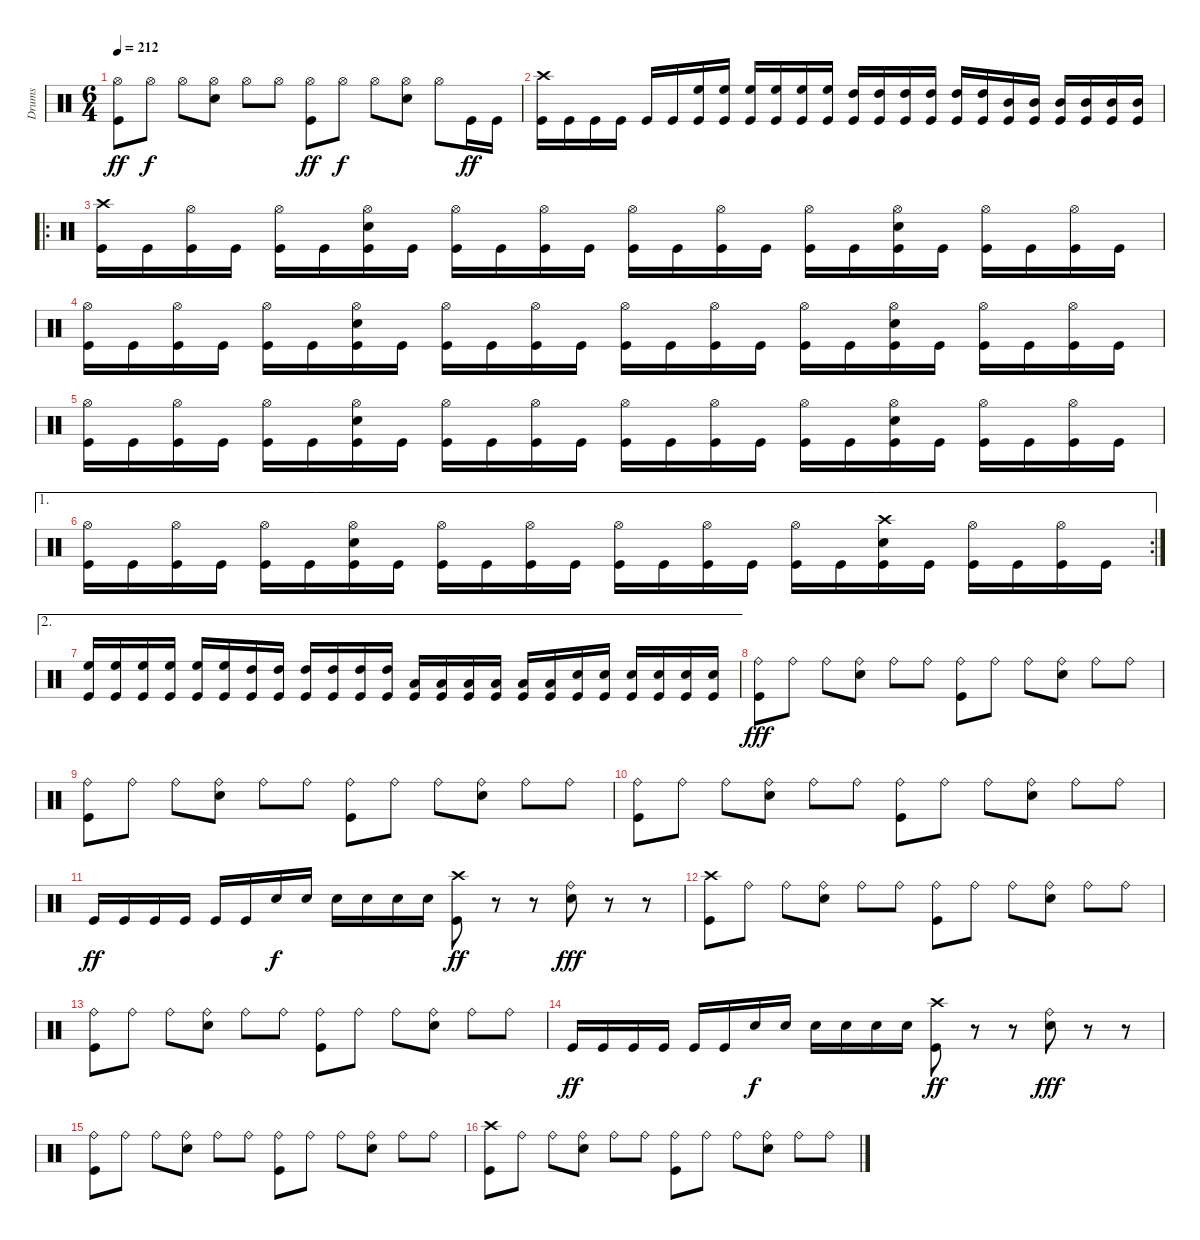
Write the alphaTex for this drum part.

\track ("Drums" "Drums") {instrument percussion}
\staff {score}
\articulation defaults
\ts (6 4)
\tempo 212
\clef neutral
\ks c
("Hi-Hat (open)" "Kick (hit)").8{dy ff} "Hi-Hat (open)".8{dy f} "Hi-Hat (open)".8 ("Hi-Hat (open)" "Snare (hit) 2").8 "Hi-Hat (open)".8 "Hi-Hat (open)".8 ("Hi-Hat (open)" "Kick (hit)").8{dy ff} "Hi-Hat (open)".8{dy f} "Hi-Hat (open)".8 ("Hi-Hat (open)" "Snare (hit) 2").8 "Hi-Hat (open)".8 "Kick (hit)".16{dy ff} "Kick (hit)".16 |
("Crash high (hit)" "Kick (hit)").16 "Kick (hit)".16 "Kick (hit)".16 "Kick (hit)".16 "Kick (hit)".16 "Kick (hit)".16 ("High Floor Tom (hit)" "Kick (hit)").16 ("High Floor Tom (hit)" "Kick (hit)").16 ("High Floor Tom (hit)" "Kick (hit)").16 ("High Floor Tom (hit)" "Kick (hit)").16 ("High Floor Tom (hit)" "Kick (hit)").16 ("High Floor Tom (hit)" "Kick (hit)").16 ("High Tom (hit)" "Kick (hit)").16 ("High Tom (hit)" "Kick (hit)").16 ("High Tom (hit)" "Kick (hit)").16 ("High Tom (hit)" "Kick (hit)").16 ("High Tom (hit)" "Kick (hit)").16 ("High Tom (hit)" "Kick (hit)").16 ("Mid Tom (hit)" "Kick (hit)").16 ("Mid Tom (hit)" "Kick (hit)").16 ("Mid Tom (hit)" "Kick (hit)").16 ("Mid Tom (hit)" "Kick (hit)").16 ("Mid Tom (hit)" "Kick (hit)").16 ("Mid Tom (hit)" "Kick (hit)").16 |
\ro
("Crash high (hit)" "Kick (hit)").16 "Kick (hit)".16 ("Hi-Hat (open)" "Kick (hit)").16 "Kick (hit)".16 ("Hi-Hat (open)" "Kick (hit)").16 "Kick (hit)".16 ("Hi-Hat (open)" "Snare (hit) 2" "Kick (hit)").16 "Kick (hit)".16 ("Hi-Hat (open)" "Kick (hit)").16 "Kick (hit)".16 ("Hi-Hat (open)" "Kick (hit)").16 "Kick (hit)".16 ("Hi-Hat (open)" "Kick (hit)").16 "Kick (hit)".16 ("Hi-Hat (open)" "Kick (hit)").16 "Kick (hit)".16 ("Hi-Hat (open)" "Kick (hit)").16 "Kick (hit)".16 ("Hi-Hat (open)" "Snare (hit) 2" "Kick (hit)").16 "Kick (hit)".16 ("Hi-Hat (open)" "Kick (hit)").16 "Kick (hit)".16 ("Hi-Hat (open)" "Kick (hit)").16 "Kick (hit)".16 |
("Hi-Hat (open)" "Kick (hit)").16 "Kick (hit)".16 ("Hi-Hat (open)" "Kick (hit)").16 "Kick (hit)".16 ("Hi-Hat (open)" "Kick (hit)").16 "Kick (hit)".16 ("Hi-Hat (open)" "Snare (hit) 2" "Kick (hit)").16 "Kick (hit)".16 ("Hi-Hat (open)" "Kick (hit)").16 "Kick (hit)".16 ("Hi-Hat (open)" "Kick (hit)").16 "Kick (hit)".16 ("Hi-Hat (open)" "Kick (hit)").16 "Kick (hit)".16 ("Hi-Hat (open)" "Kick (hit)").16 "Kick (hit)".16 ("Hi-Hat (open)" "Kick (hit)").16 "Kick (hit)".16 ("Hi-Hat (open)" "Snare (hit) 2" "Kick (hit)").16 "Kick (hit)".16 ("Hi-Hat (open)" "Kick (hit)").16 "Kick (hit)".16 ("Hi-Hat (open)" "Kick (hit)").16 "Kick (hit)".16 |
("Hi-Hat (open)" "Kick (hit)").16 "Kick (hit)".16 ("Hi-Hat (open)" "Kick (hit)").16 "Kick (hit)".16 ("Hi-Hat (open)" "Kick (hit)").16 "Kick (hit)".16 ("Hi-Hat (open)" "Snare (hit) 2" "Kick (hit)").16 "Kick (hit)".16 ("Hi-Hat (open)" "Kick (hit)").16 "Kick (hit)".16 ("Hi-Hat (open)" "Kick (hit)").16 "Kick (hit)".16 ("Hi-Hat (open)" "Kick (hit)").16 "Kick (hit)".16 ("Hi-Hat (open)" "Kick (hit)").16 "Kick (hit)".16 ("Hi-Hat (open)" "Kick (hit)").16 "Kick (hit)".16 ("Hi-Hat (open)" "Snare (hit) 2" "Kick (hit)").16 "Kick (hit)".16 ("Hi-Hat (open)" "Kick (hit)").16 "Kick (hit)".16 ("Hi-Hat (open)" "Kick (hit)").16 "Kick (hit)".16 |
\ae 1
\rc 2
("Hi-Hat (open)" "Kick (hit)").16 "Kick (hit)".16 ("Hi-Hat (open)" "Kick (hit)").16 "Kick (hit)".16 ("Hi-Hat (open)" "Kick (hit)").16 "Kick (hit)".16 ("Hi-Hat (open)" "Snare (hit) 2" "Kick (hit)").16 "Kick (hit)".16 ("Hi-Hat (open)" "Kick (hit)").16 "Kick (hit)".16 ("Hi-Hat (open)" "Kick (hit)").16 "Kick (hit)".16 ("Hi-Hat (open)" "Kick (hit)").16 "Kick (hit)".16 ("Hi-Hat (open)" "Kick (hit)").16 "Kick (hit)".16 ("Hi-Hat (open)" "Kick (hit)").16 "Kick (hit)".16 ("Crash high (hit)" "Snare (hit) 2" "Kick (hit)").16 "Kick (hit)".16 ("Hi-Hat (open)" "Kick (hit)").16 "Kick (hit)".16 ("Hi-Hat (open)" "Kick (hit)").16 "Kick (hit)".16 |
\ae 2
("High Floor Tom (hit)" "Kick (hit)").16 ("High Floor Tom (hit)" "Kick (hit)").16 ("High Floor Tom (hit)" "Kick (hit)").16 ("High Floor Tom (hit)" "Kick (hit)").16 ("High Floor Tom (hit)" "Kick (hit)").16 ("High Floor Tom (hit)" "Kick (hit)").16 ("High Tom (hit)" "Kick (hit)").16 ("High Tom (hit)" "Kick (hit)").16 ("High Tom (hit)" "Kick (hit)").16 ("High Tom (hit)" "Kick (hit)").16 ("High Tom (hit)" "Kick (hit)").16 ("High Tom (hit)" "Kick (hit)").16 ("Low Tom (hit)" "Kick (hit)").16 ("Low Tom (hit)" "Kick (hit)").16 ("Low Tom (hit)" "Kick (hit)").16 ("Low Tom (hit)" "Kick (hit)").16 ("Low Tom (hit)" "Kick (hit)").16 ("Low Tom (hit)" "Kick (hit)").16 ("Snare (hit) 2" "Kick (hit)").16 ("Snare (hit) 2" "Kick (hit)").16 ("Snare (hit) 2" "Kick (hit)").16 ("Snare (hit) 2" "Kick (hit)").16 ("Snare (hit) 2" "Kick (hit)").16 ("Snare (hit) 2" "Kick (hit)").16 |
("Ride (bell)" "Kick (hit)").8{dy fff} "Ride (bell)".8 "Ride (bell)".8 ("Ride (bell)" "Snare (hit) 2").8 "Ride (bell)".8 "Ride (bell)".8 ("Ride (bell)" "Kick (hit)").8 "Ride (bell)".8 "Ride (bell)".8 ("Ride (bell)" "Snare (hit) 2").8 "Ride (bell)".8 "Ride (bell)".8 |
("Ride (bell)" "Kick (hit)").8 "Ride (bell)".8 "Ride (bell)".8 ("Ride (bell)" "Snare (hit) 2").8 "Ride (bell)".8 "Ride (bell)".8 ("Ride (bell)" "Kick (hit)").8 "Ride (bell)".8 "Ride (bell)".8 ("Ride (bell)" "Snare (hit) 2").8 "Ride (bell)".8 "Ride (bell)".8 |
("Ride (bell)" "Kick (hit)").8 "Ride (bell)".8 "Ride (bell)".8 ("Ride (bell)" "Snare (hit) 2").8 "Ride (bell)".8 "Ride (bell)".8 ("Ride (bell)" "Kick (hit)").8 "Ride (bell)".8 "Ride (bell)".8 ("Ride (bell)" "Snare (hit) 2").8 "Ride (bell)".8 "Ride (bell)".8 |
"Kick (hit)".16{dy ff} "Kick (hit)".16 "Kick (hit)".16 "Kick (hit)".16 "Kick (hit)".16 "Kick (hit)".16 "Snare (hit) 2".16{dy f} "Snare (hit) 2".16 "Snare (hit) 2".16 "Snare (hit) 2".16 "Snare (hit) 2".16 "Snare (hit) 2".16 ("Crash high (hit)" "Kick (hit)").8{dy ff} r.8 r.8 ("Ride (bell)" "Snare (hit) 2").8{dy fff} r.8 r.8 |
("Crash high (hit)" "Kick (hit)").8 "Ride (bell)".8 "Ride (bell)".8 ("Ride (bell)" "Snare (hit) 2").8 "Ride (bell)".8 "Ride (bell)".8 ("Ride (bell)" "Kick (hit)").8 "Ride (bell)".8 "Ride (bell)".8 ("Ride (bell)" "Snare (hit) 2").8 "Ride (bell)".8 "Ride (bell)".8 |
("Ride (bell)" "Kick (hit)").8 "Ride (bell)".8 "Ride (bell)".8 ("Ride (bell)" "Snare (hit) 2").8 "Ride (bell)".8 "Ride (bell)".8 ("Ride (bell)" "Kick (hit)").8 "Ride (bell)".8 "Ride (bell)".8 ("Ride (bell)" "Snare (hit) 2").8 "Ride (bell)".8 "Ride (bell)".8 |
"Kick (hit)".16{dy ff} "Kick (hit)".16 "Kick (hit)".16 "Kick (hit)".16 "Kick (hit)".16 "Kick (hit)".16 "Snare (hit) 2".16{dy f} "Snare (hit) 2".16 "Snare (hit) 2".16 "Snare (hit) 2".16 "Snare (hit) 2".16 "Snare (hit) 2".16 ("Crash high (hit)" "Kick (hit)").8{dy ff} r.8 r.8 ("Ride (bell)" "Snare (hit) 2").8{dy fff} r.8 r.8 |
("Ride (bell)" "Kick (hit)").8 "Ride (bell)".8 "Ride (bell)".8 ("Ride (bell)" "Snare (hit) 2").8 "Ride (bell)".8 "Ride (bell)".8 ("Ride (bell)" "Kick (hit)").8 "Ride (bell)".8 "Ride (bell)".8 ("Ride (bell)" "Snare (hit) 2").8 "Ride (bell)".8 "Ride (bell)".8 |
("Crash high (hit)" "Kick (hit)").8 "Ride (bell)".8 "Ride (bell)".8 ("Ride (bell)" "Snare (hit) 2").8 "Ride (bell)".8 "Ride (bell)".8 ("Ride (bell)" "Kick (hit)").8 "Ride (bell)".8 "Ride (bell)".8 ("Ride (bell)" "Snare (hit) 2").8 "Ride (bell)".8 "Ride (bell)".8
